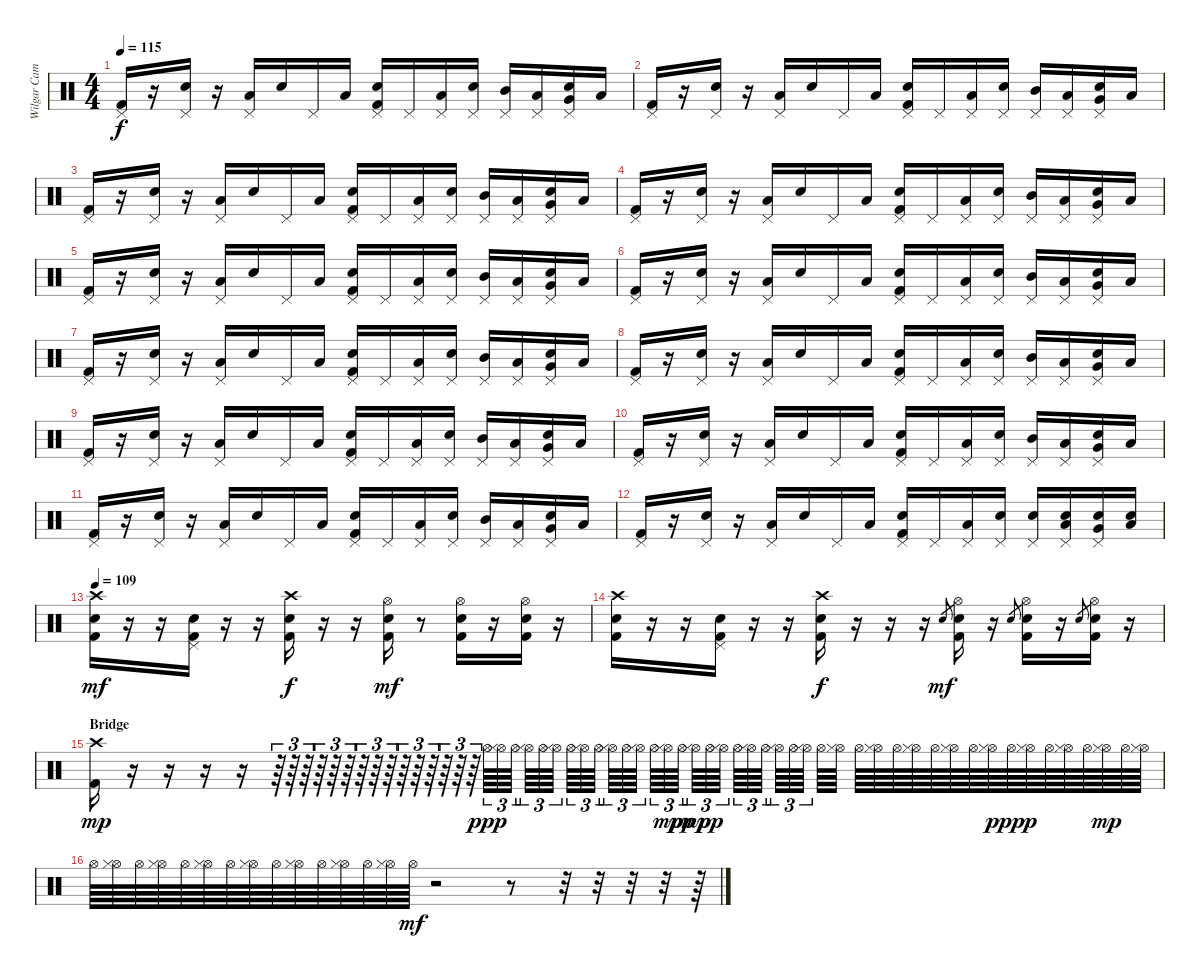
\track ("Wilgar Campbell" "Wilgar Cam") {instrument percussion}
\staff {score}
\articulation defaults
\ts (4 4)
\tempo 115
\clef neutral
\ks c
("Pedal Hi-Hat (hit)" "Kick (hit) 2").16{dy f} r.16 ("Snare (hit) 2" "Pedal Hi-Hat (hit)").16 r.16 ("Low Tom (hit)" "Pedal Hi-Hat (hit)").16 "Snare (hit) 2".16 "Pedal Hi-Hat (hit)".16 "Low Tom (hit)".16 ("Snare (hit) 2" "Pedal Hi-Hat (hit)" "Kick (hit) 2").16 "Pedal Hi-Hat (hit)".16 ("Low Tom (hit)" "Pedal Hi-Hat (hit)").16 ("Snare (hit) 2" "Pedal Hi-Hat (hit)").16 ("Mid Tom (hit)" "Pedal Hi-Hat (hit)").16 ("Low Tom (hit)" "Pedal Hi-Hat (hit)").16 ("Very Low Tom (hit)" "Snare (hit) 2" "Pedal Hi-Hat (hit)").16 "Low Tom (hit)".16 |
("Pedal Hi-Hat (hit)" "Kick (hit) 2").16 r.16 ("Snare (hit) 2" "Pedal Hi-Hat (hit)").16 r.16 ("Low Tom (hit)" "Pedal Hi-Hat (hit)").16 "Snare (hit) 2".16 "Pedal Hi-Hat (hit)".16 "Low Tom (hit)".16 ("Snare (hit) 2" "Pedal Hi-Hat (hit)" "Kick (hit) 2").16 "Pedal Hi-Hat (hit)".16 ("Low Tom (hit)" "Pedal Hi-Hat (hit)").16 ("Snare (hit) 2" "Pedal Hi-Hat (hit)").16 ("Mid Tom (hit)" "Pedal Hi-Hat (hit)").16 ("Low Tom (hit)" "Pedal Hi-Hat (hit)").16 ("Very Low Tom (hit)" "Snare (hit) 2" "Pedal Hi-Hat (hit)").16 "Low Tom (hit)".16 |
("Pedal Hi-Hat (hit)" "Kick (hit) 2").16 r.16 ("Snare (hit) 2" "Pedal Hi-Hat (hit)").16 r.16 ("Low Tom (hit)" "Pedal Hi-Hat (hit)").16 "Snare (hit) 2".16 "Pedal Hi-Hat (hit)".16 "Low Tom (hit)".16 ("Snare (hit) 2" "Pedal Hi-Hat (hit)" "Kick (hit) 2").16 "Pedal Hi-Hat (hit)".16 ("Low Tom (hit)" "Pedal Hi-Hat (hit)").16 ("Snare (hit) 2" "Pedal Hi-Hat (hit)").16 ("Mid Tom (hit)" "Pedal Hi-Hat (hit)").16 ("Low Tom (hit)" "Pedal Hi-Hat (hit)").16 ("Very Low Tom (hit)" "Snare (hit) 2" "Pedal Hi-Hat (hit)").16 "Low Tom (hit)".16 |
("Pedal Hi-Hat (hit)" "Kick (hit) 2").16 r.16 ("Snare (hit) 2" "Pedal Hi-Hat (hit)").16 r.16 ("Low Tom (hit)" "Pedal Hi-Hat (hit)").16 "Snare (hit) 2".16 "Pedal Hi-Hat (hit)".16 "Low Tom (hit)".16 ("Snare (hit) 2" "Pedal Hi-Hat (hit)" "Kick (hit) 2").16 "Pedal Hi-Hat (hit)".16 ("Low Tom (hit)" "Pedal Hi-Hat (hit)").16 ("Snare (hit) 2" "Pedal Hi-Hat (hit)").16 ("Mid Tom (hit)" "Pedal Hi-Hat (hit)").16 ("Low Tom (hit)" "Pedal Hi-Hat (hit)").16 ("Very Low Tom (hit)" "Snare (hit) 2" "Pedal Hi-Hat (hit)").16 "Low Tom (hit)".16 |
("Pedal Hi-Hat (hit)" "Kick (hit) 2").16 r.16 ("Snare (hit) 2" "Pedal Hi-Hat (hit)").16 r.16 ("Low Tom (hit)" "Pedal Hi-Hat (hit)").16 "Snare (hit) 2".16 "Pedal Hi-Hat (hit)".16 "Low Tom (hit)".16 ("Snare (hit) 2" "Pedal Hi-Hat (hit)" "Kick (hit) 2").16 "Pedal Hi-Hat (hit)".16 ("Low Tom (hit)" "Pedal Hi-Hat (hit)").16 ("Snare (hit) 2" "Pedal Hi-Hat (hit)").16 ("Mid Tom (hit)" "Pedal Hi-Hat (hit)").16 ("Low Tom (hit)" "Pedal Hi-Hat (hit)").16 ("Very Low Tom (hit)" "Snare (hit) 2" "Pedal Hi-Hat (hit)").16 "Low Tom (hit)".16 |
("Pedal Hi-Hat (hit)" "Kick (hit) 2").16 r.16 ("Snare (hit) 2" "Pedal Hi-Hat (hit)").16 r.16 ("Low Tom (hit)" "Pedal Hi-Hat (hit)").16 "Snare (hit) 2".16 "Pedal Hi-Hat (hit)".16 "Low Tom (hit)".16 ("Snare (hit) 2" "Pedal Hi-Hat (hit)" "Kick (hit) 2").16 "Pedal Hi-Hat (hit)".16 ("Low Tom (hit)" "Pedal Hi-Hat (hit)").16 ("Snare (hit) 2" "Pedal Hi-Hat (hit)").16 ("Mid Tom (hit)" "Pedal Hi-Hat (hit)").16 ("Low Tom (hit)" "Pedal Hi-Hat (hit)").16 ("Very Low Tom (hit)" "Snare (hit) 2" "Pedal Hi-Hat (hit)").16 "Low Tom (hit)".16 |
("Pedal Hi-Hat (hit)" "Kick (hit) 2").16 r.16 ("Snare (hit) 2" "Pedal Hi-Hat (hit)").16 r.16 ("Low Tom (hit)" "Pedal Hi-Hat (hit)").16 "Snare (hit) 2".16 "Pedal Hi-Hat (hit)".16 "Low Tom (hit)".16 ("Snare (hit) 2" "Pedal Hi-Hat (hit)" "Kick (hit) 2").16 "Pedal Hi-Hat (hit)".16 ("Low Tom (hit)" "Pedal Hi-Hat (hit)").16 ("Snare (hit) 2" "Pedal Hi-Hat (hit)").16 ("Mid Tom (hit)" "Pedal Hi-Hat (hit)").16 ("Low Tom (hit)" "Pedal Hi-Hat (hit)").16 ("Very Low Tom (hit)" "Snare (hit) 2" "Pedal Hi-Hat (hit)").16 "Low Tom (hit)".16 |
("Pedal Hi-Hat (hit)" "Kick (hit) 2").16 r.16 ("Snare (hit) 2" "Pedal Hi-Hat (hit)").16 r.16 ("Low Tom (hit)" "Pedal Hi-Hat (hit)").16 "Snare (hit) 2".16 "Pedal Hi-Hat (hit)".16 "Low Tom (hit)".16 ("Snare (hit) 2" "Pedal Hi-Hat (hit)" "Kick (hit) 2").16 "Pedal Hi-Hat (hit)".16 ("Low Tom (hit)" "Pedal Hi-Hat (hit)").16 ("Snare (hit) 2" "Pedal Hi-Hat (hit)").16 ("Mid Tom (hit)" "Pedal Hi-Hat (hit)").16 ("Low Tom (hit)" "Pedal Hi-Hat (hit)").16 ("Very Low Tom (hit)" "Snare (hit) 2" "Pedal Hi-Hat (hit)").16 "Low Tom (hit)".16 |
("Pedal Hi-Hat (hit)" "Kick (hit) 2").16 r.16 ("Snare (hit) 2" "Pedal Hi-Hat (hit)").16 r.16 ("Low Tom (hit)" "Pedal Hi-Hat (hit)").16 "Snare (hit) 2".16 "Pedal Hi-Hat (hit)".16 "Low Tom (hit)".16 ("Snare (hit) 2" "Pedal Hi-Hat (hit)" "Kick (hit) 2").16 "Pedal Hi-Hat (hit)".16 ("Low Tom (hit)" "Pedal Hi-Hat (hit)").16 ("Snare (hit) 2" "Pedal Hi-Hat (hit)").16 ("Mid Tom (hit)" "Pedal Hi-Hat (hit)").16 ("Low Tom (hit)" "Pedal Hi-Hat (hit)").16 ("Very Low Tom (hit)" "Snare (hit) 2" "Pedal Hi-Hat (hit)").16 "Low Tom (hit)".16 |
("Pedal Hi-Hat (hit)" "Kick (hit) 2").16 r.16 ("Snare (hit) 2" "Pedal Hi-Hat (hit)").16 r.16 ("Low Tom (hit)" "Pedal Hi-Hat (hit)").16 "Snare (hit) 2".16 "Pedal Hi-Hat (hit)".16 "Low Tom (hit)".16 ("Snare (hit) 2" "Pedal Hi-Hat (hit)" "Kick (hit) 2").16 "Pedal Hi-Hat (hit)".16 ("Low Tom (hit)" "Pedal Hi-Hat (hit)").16 ("Snare (hit) 2" "Pedal Hi-Hat (hit)").16 ("Mid Tom (hit)" "Pedal Hi-Hat (hit)").16 ("Low Tom (hit)" "Pedal Hi-Hat (hit)").16 ("Very Low Tom (hit)" "Snare (hit) 2" "Pedal Hi-Hat (hit)").16 "Low Tom (hit)".16 |
("Pedal Hi-Hat (hit)" "Kick (hit) 2").16 r.16 ("Snare (hit) 2" "Pedal Hi-Hat (hit)").16 r.16 ("Low Tom (hit)" "Pedal Hi-Hat (hit)").16 "Snare (hit) 2".16 "Pedal Hi-Hat (hit)".16 "Low Tom (hit)".16 ("Snare (hit) 2" "Pedal Hi-Hat (hit)" "Kick (hit) 2").16 "Pedal Hi-Hat (hit)".16 ("Low Tom (hit)" "Pedal Hi-Hat (hit)").16 ("Snare (hit) 2" "Pedal Hi-Hat (hit)").16 ("Mid Tom (hit)" "Pedal Hi-Hat (hit)").16 ("Low Tom (hit)" "Pedal Hi-Hat (hit)").16 ("Very Low Tom (hit)" "Snare (hit) 2" "Pedal Hi-Hat (hit)").16 "Low Tom (hit)".16 |
("Pedal Hi-Hat (hit)" "Kick (hit) 2").16 r.16 ("Snare (hit) 2" "Pedal Hi-Hat (hit)").16 r.16 ("Low Tom (hit)" "Pedal Hi-Hat (hit)").16 "Snare (hit) 2".16 "Pedal Hi-Hat (hit)".16 "Low Tom (hit)".16 ("Snare (hit) 2" "Pedal Hi-Hat (hit)" "Kick (hit) 2").16 "Pedal Hi-Hat (hit)".16 ("Low Tom (hit)" "Pedal Hi-Hat (hit)").16 ("Snare (hit) 2" "Pedal Hi-Hat (hit)").16 ("Electric Snare (hit)" "Pedal Hi-Hat (hit)").16 ("Low Tom (hit)" "Electric Snare (hit)" "Pedal Hi-Hat (hit)").16 ("Very Low Tom (hit)" "Electric Snare (hit)" "Pedal Hi-Hat (hit)").16 ("Low Tom (hit)" "Electric Snare (hit)").16 |
\tempo 109
("Crash high (hit)" "Snare (hit) 2" "Kick (hit) 2").16{dy mf} r.16 r.16 ("Pedal Hi-Hat (hit)" "Snare (hit) 2" "Kick (hit) 2").16 r.16 r.16 ("Crash high (hit)" "Snare (hit) 2" "Kick (hit) 2").16{dy f} r.16 r.16 ("Hi-Hat (open)" "Snare (hit) 2" "Kick (hit) 2").16{dy mf} r.8 ("Hi-Hat (open)" "Snare (hit) 2" "Kick (hit) 2").16 r.16 ("Hi-Hat (open)" "Snare (hit) 2" "Kick (hit) 2").16 r.16 |
("Crash high (hit)" "Snare (hit) 2" "Kick (hit) 2").16 r.16 r.16 ("Pedal Hi-Hat (hit)" "Snare (hit) 2" "Kick (hit) 2").16 r.16 r.16 ("Crash high (hit)" "Snare (hit) 2" "Kick (hit) 2").16{dy f} r.16 r.16 r.16 "Electric Snare (hit)".8{gr dy mf} ("Hi-Hat (open)" "Snare (hit) 2" "Kick (hit) 2").16 r.16 "Electric Snare (hit)".8{gr} ("Hi-Hat (open)" "Snare (hit) 2" "Kick (hit) 2").16 r.16 "Electric Snare (hit)".8{gr} ("Hi-Hat (open)" "Snare (hit) 2" "Kick (hit) 2").16 r.16 |
\section ("" "Bridge")
("Crash high (hit)" "Kick (hit) 2").16{dy mp} r.16 r.16 r.16 r.16 r.64{tu (3 2)} r.64{tu (3 2)} r.64{tu (3 2)} r.64{tu (3 2)} r.64{tu (3 2)} r.64{tu (3 2)} r.64{tu (3 2)} r.64{tu (3 2)} r.64{tu (3 2)} r.64{tu (3 2)} r.64{tu (3 2)} r.64{tu (3 2)} r.64{tu (3 2)} r.64{tu (3 2)} r.64{tu (3 2)} "Hi-Hat (open)".64{tu (3 2) dy ppp} ("Hi-Hat (open)" "Hi-Hat (closed)").64{tu (3 2)} "Hi-Hat (open)".64{tu (3 2)} ("Hi-Hat (open)" "Hi-Hat (closed)").64{tu (3 2)} "Hi-Hat (open)".64{tu (3 2)} ("Hi-Hat (open)" "Hi-Hat (closed)").64{tu (3 2)} "Hi-Hat (open)".64{tu (3 2)} ("Hi-Hat (open)" "Hi-Hat (closed)").64{tu (3 2)} "Hi-Hat (open)".64{tu (3 2)} ("Hi-Hat (open)" "Hi-Hat (closed)").64{tu (3 2)} "Hi-Hat (open)".64{tu (3 2)} ("Hi-Hat (open)" "Hi-Hat (closed)").64{tu (3 2)} "Hi-Hat (open)".64{tu (3 2)} ("Hi-Hat (open)" "Hi-Hat (closed)").64{tu (3 2) dy mp} "Hi-Hat (open)".64{tu (3 2) dy pp} ("Hi-Hat (open)" "Hi-Hat (closed)").64{tu (3 2) dy mp} "Hi-Hat (open)".64{tu (3 2) dy pp} ("Hi-Hat (open)" "Hi-Hat (closed)").64{tu (3 2)} "Hi-Hat (open)".64{tu (3 2)} ("Hi-Hat (open)" "Hi-Hat (closed)").64{tu (3 2)} "Hi-Hat (open)".64{tu (3 2)} ("Hi-Hat (open)" "Hi-Hat (closed)").64{tu (3 2)} "Hi-Hat (open)".64{tu (3 2)} ("Hi-Hat (open)" "Hi-Hat (closed)").64{tu (3 2)} "Hi-Hat (open)".64 ("Hi-Hat (open)" "Hi-Hat (closed)").64 "Hi-Hat (open)".64 ("Hi-Hat (open)" "Hi-Hat (closed)").64 "Hi-Hat (open)".64 ("Hi-Hat (open)" "Hi-Hat (closed)").64 "Hi-Hat (open)".64 ("Hi-Hat (open)" "Hi-Hat (closed)").64 "Hi-Hat (open)".64 ("Hi-Hat (open)" "Hi-Hat (closed)").64{dy p} "Hi-Hat (open)".64{dy pp} ("Hi-Hat (open)" "Hi-Hat (closed)").64{dy p} "Hi-Hat (open)".64 ("Hi-Hat (open)" "Hi-Hat (closed)").64 "Hi-Hat (open)".64 ("Hi-Hat (open)" "Hi-Hat (closed)").64{dy mp} "Hi-Hat (open)".64 ("Hi-Hat (open)" "Hi-Hat (closed)").64 |
"Hi-Hat (open)".64 ("Hi-Hat (open)" "Hi-Hat (closed)").64 "Hi-Hat (open)".64 ("Hi-Hat (open)" "Hi-Hat (closed)").64 "Hi-Hat (open)".64 ("Hi-Hat (open)" "Hi-Hat (closed)").64 "Hi-Hat (open)".64 ("Hi-Hat (open)" "Hi-Hat (closed)").64 "Hi-Hat (open)".64 ("Hi-Hat (open)" "Hi-Hat (closed)").64 "Hi-Hat (open)".64 ("Hi-Hat (open)" "Hi-Hat (closed)").64 "Hi-Hat (open)".64 ("Hi-Hat (open)" "Hi-Hat (closed)").64 "Hi-Hat (open)".64{dy mf} r.2 r.8 r.32 r.32 r.32 r.32 r.64
